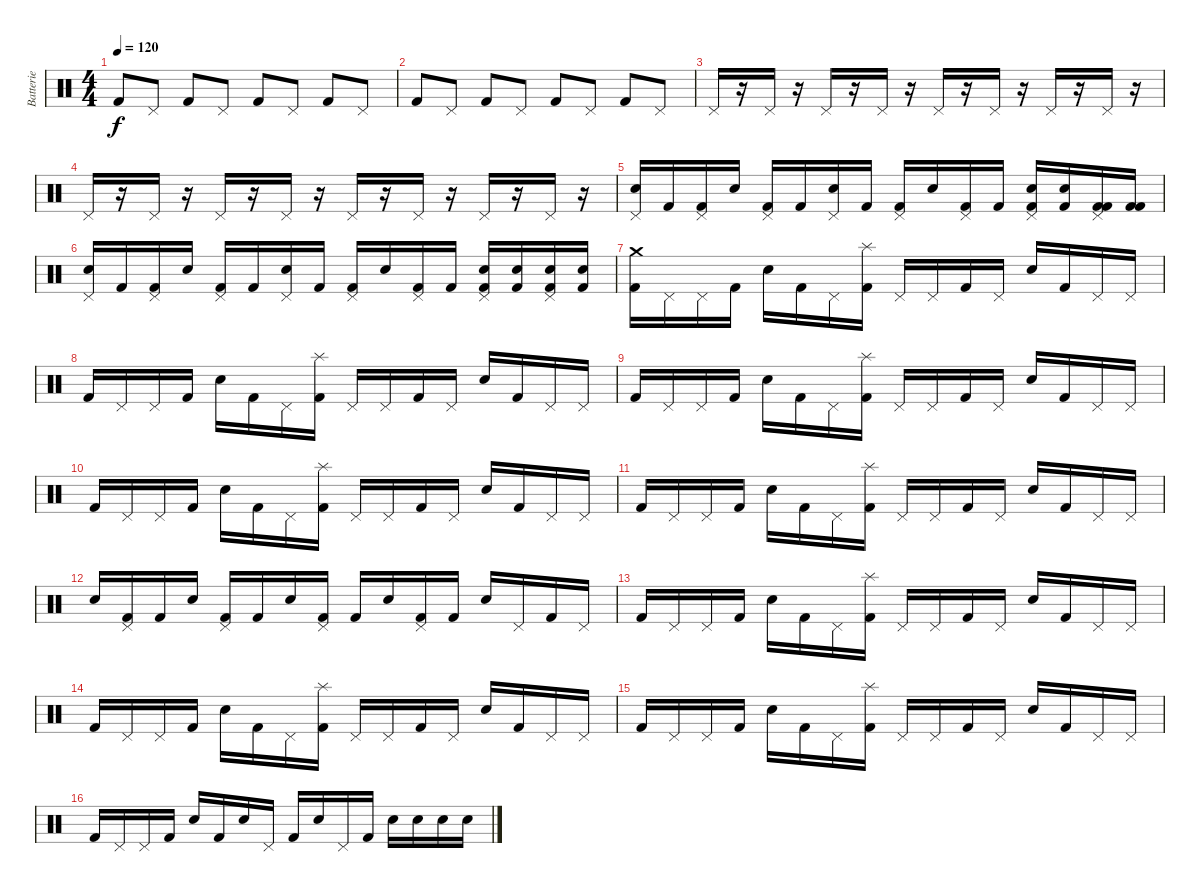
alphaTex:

\track ("Batterie" "Batterie") {instrument percussion}
\staff {score}
\articulation defaults
\ts (4 4)
\tempo 120
\clef neutral
\ks c "Kick (hit) 2".8{dy f} "Pedal Hi-Hat (hit)".8 "Kick (hit) 2".8 "Pedal Hi-Hat (hit)".8 "Kick (hit) 2".8 "Pedal Hi-Hat (hit)".8 "Kick (hit) 2".8 "Pedal Hi-Hat (hit)".8
|
"Kick (hit) 2".8 "Pedal Hi-Hat (hit)".8 "Kick (hit) 2".8 "Pedal Hi-Hat (hit)".8 "Kick (hit) 2".8 "Pedal Hi-Hat (hit)".8 "Kick (hit) 2".8 "Pedal Hi-Hat (hit)".8 |
"Pedal Hi-Hat (hit)".16 r.16 "Pedal Hi-Hat (hit)".16 r.16 "Pedal Hi-Hat (hit)".16 r.16 "Pedal Hi-Hat (hit)".16 r.16 "Pedal Hi-Hat (hit)".16 r.16 "Pedal Hi-Hat (hit)".16 r.16 "Pedal Hi-Hat (hit)".16 r.16 "Pedal Hi-Hat (hit)".16 r.16 |
"Pedal Hi-Hat (hit)".16 r.16 "Pedal Hi-Hat (hit)".16 r.16 "Pedal Hi-Hat (hit)".16 r.16 "Pedal Hi-Hat (hit)".16 r.16 "Pedal Hi-Hat (hit)".16 r.16 "Pedal Hi-Hat (hit)".16 r.16 "Pedal Hi-Hat (hit)".16 r.16 "Pedal Hi-Hat (hit)".16 r.16 |
("Pedal Hi-Hat (hit)" "Electric Snare (hit)").16 "Kick (hit) 2".16 ("Pedal Hi-Hat (hit)" "Kick (hit) 2").16 "Electric Snare (hit)".16 ("Pedal Hi-Hat (hit)" "Kick (hit) 2").16 "Kick (hit) 2".16 ("Pedal Hi-Hat (hit)" "Electric Snare (hit)").16 "Kick (hit) 2".16 ("Pedal Hi-Hat (hit)" "Kick (hit) 2").16 "Electric Snare (hit)".16 ("Pedal Hi-Hat (hit)" "Kick (hit) 2").16 "Kick (hit) 2".16 ("Pedal Hi-Hat (hit)" "Snare (hit) 2" "Kick (hit) 2").16 ("Snare (hit) 2" "Kick (hit) 2").16 ("Pedal Hi-Hat (hit)" "Kick (hit) 2" "Kick (hit) 2").16 ("Kick (hit) 2" "Kick (hit) 2").16 |
("Pedal Hi-Hat (hit)" "Electric Snare (hit)").16 "Kick (hit) 2".16 ("Pedal Hi-Hat (hit)" "Kick (hit) 2").16 "Electric Snare (hit)".16 ("Pedal Hi-Hat (hit)" "Kick (hit) 2").16 "Kick (hit) 2".16 ("Pedal Hi-Hat (hit)" "Electric Snare (hit)").16 "Kick (hit) 2".16 ("Pedal Hi-Hat (hit)" "Kick (hit) 2").16 "Electric Snare (hit)".16 ("Pedal Hi-Hat (hit)" "Kick (hit) 2").16 "Kick (hit) 2".16 ("Pedal Hi-Hat (hit)" "Electric Snare (hit)" "Kick (hit) 2").16 ("Electric Snare (hit)" "Kick (hit) 2").16 ("Pedal Hi-Hat (hit)" "Electric Snare (hit)" "Kick (hit) 2").16 ("Electric Snare (hit)" "Kick (hit) 2").16 |
("Crash medium (hit)" "Kick (hit) 2").16 "Pedal Hi-Hat (hit)".16 "Pedal Hi-Hat (hit)".16 "Kick (hit) 2".16 "Electric Snare (hit)".16 "Kick (hit) 2".16 "Pedal Hi-Hat (hit)".16 ("Splash (hit)" "Kick (hit) 2").16 "Pedal Hi-Hat (hit)".16 "Pedal Hi-Hat (hit)".16 "Kick (hit) 2".16 "Pedal Hi-Hat (hit)".16 "Electric Snare (hit)".16 "Kick (hit) 2".16 "Pedal Hi-Hat (hit)".16 "Pedal Hi-Hat (hit)".16 |
"Kick (hit) 2".16 "Pedal Hi-Hat (hit)".16 "Pedal Hi-Hat (hit)".16 "Kick (hit) 2".16 "Electric Snare (hit)".16 "Kick (hit) 2".16 "Pedal Hi-Hat (hit)".16 ("Splash (hit)" "Kick (hit) 2").16 "Pedal Hi-Hat (hit)".16 "Pedal Hi-Hat (hit)".16 "Kick (hit) 2".16 "Pedal Hi-Hat (hit)".16 "Electric Snare (hit)".16 "Kick (hit) 2".16 "Pedal Hi-Hat (hit)".16 "Pedal Hi-Hat (hit)".16 |
"Kick (hit) 2".16 "Pedal Hi-Hat (hit)".16 "Pedal Hi-Hat (hit)".16 "Kick (hit) 2".16 "Electric Snare (hit)".16 "Kick (hit) 2".16 "Pedal Hi-Hat (hit)".16 ("Splash (hit)" "Kick (hit) 2").16 "Pedal Hi-Hat (hit)".16 "Pedal Hi-Hat (hit)".16 "Kick (hit) 2".16 "Pedal Hi-Hat (hit)".16 "Electric Snare (hit)".16 "Kick (hit) 2".16 "Pedal Hi-Hat (hit)".16 "Pedal Hi-Hat (hit)".16 |
"Kick (hit) 2".16 "Pedal Hi-Hat (hit)".16 "Pedal Hi-Hat (hit)".16 "Kick (hit) 2".16 "Electric Snare (hit)".16 "Kick (hit) 2".16 "Pedal Hi-Hat (hit)".16 ("Splash (hit)" "Kick (hit) 2").16 "Pedal Hi-Hat (hit)".16 "Pedal Hi-Hat (hit)".16 "Kick (hit) 2".16 "Pedal Hi-Hat (hit)".16 "Electric Snare (hit)".16 "Kick (hit) 2".16 "Pedal Hi-Hat (hit)".16 "Pedal Hi-Hat (hit)".16 |
"Kick (hit) 2".16 "Pedal Hi-Hat (hit)".16 "Pedal Hi-Hat (hit)".16 "Kick (hit) 2".16 "Electric Snare (hit)".16 "Kick (hit) 2".16 "Pedal Hi-Hat (hit)".16 ("Splash (hit)" "Kick (hit) 2").16 "Pedal Hi-Hat (hit)".16 "Pedal Hi-Hat (hit)".16 "Kick (hit) 2".16 "Pedal Hi-Hat (hit)".16 "Electric Snare (hit)".16 "Kick (hit) 2".16 "Pedal Hi-Hat (hit)".16 "Pedal Hi-Hat (hit)".16 |
"Electric Snare (hit)".16 ("Pedal Hi-Hat (hit)" "Kick (hit) 2").16 "Kick (hit) 2".16 "Electric Snare (hit)".16 ("Pedal Hi-Hat (hit)" "Kick (hit) 2").16 "Kick (hit) 2".16 "Electric Snare (hit)".16 ("Pedal Hi-Hat (hit)" "Kick (hit) 2").16 "Kick (hit) 2".16 "Electric Snare (hit)".16 ("Pedal Hi-Hat (hit)" "Kick (hit) 2").16 "Kick (hit) 2".16 "Electric Snare (hit)".16 "Pedal Hi-Hat (hit)".16 "Kick (hit) 2".16 "Pedal Hi-Hat (hit)".16 |
"Kick (hit) 2".16 "Pedal Hi-Hat (hit)".16 "Pedal Hi-Hat (hit)".16 "Kick (hit) 2".16 "Electric Snare (hit)".16 "Kick (hit) 2".16 "Pedal Hi-Hat (hit)".16 ("Splash (hit)" "Kick (hit) 2").16 "Pedal Hi-Hat (hit)".16 "Pedal Hi-Hat (hit)".16 "Kick (hit) 2".16 "Pedal Hi-Hat (hit)".16 "Electric Snare (hit)".16 "Kick (hit) 2".16 "Pedal Hi-Hat (hit)".16 "Pedal Hi-Hat (hit)".16 |
"Kick (hit) 2".16 "Pedal Hi-Hat (hit)".16 "Pedal Hi-Hat (hit)".16 "Kick (hit) 2".16 "Electric Snare (hit)".16 "Kick (hit) 2".16 "Pedal Hi-Hat (hit)".16 ("Splash (hit)" "Kick (hit) 2").16 "Pedal Hi-Hat (hit)".16 "Pedal Hi-Hat (hit)".16 "Kick (hit) 2".16 "Pedal Hi-Hat (hit)".16 "Electric Snare (hit)".16 "Kick (hit) 2".16 "Pedal Hi-Hat (hit)".16 "Pedal Hi-Hat (hit)".16 |
"Kick (hit) 2".16 "Pedal Hi-Hat (hit)".16 "Pedal Hi-Hat (hit)".16 "Kick (hit) 2".16 "Electric Snare (hit)".16 "Kick (hit) 2".16 "Pedal Hi-Hat (hit)".16 ("Splash (hit)" "Kick (hit) 2").16 "Pedal Hi-Hat (hit)".16 "Pedal Hi-Hat (hit)".16 "Kick (hit) 2".16 "Pedal Hi-Hat (hit)".16 "Electric Snare (hit)".16 "Kick (hit) 2".16 "Pedal Hi-Hat (hit)".16 "Pedal Hi-Hat (hit)".16 |
"Kick (hit) 2".16 "Pedal Hi-Hat (hit)".16 "Pedal Hi-Hat (hit)".16 "Kick (hit) 2".16 "Electric Snare (hit)".16 "Kick (hit) 2".16 "Electric Snare (hit)".16 "Pedal Hi-Hat (hit)".16 "Kick (hit) 2".16 "Electric Snare (hit)".16 "Pedal Hi-Hat (hit)".16 "Kick (hit) 2".16 "Electric Snare (hit)".16 "Electric Snare (hit)".16 "Electric Snare (hit)".16 "Electric Snare (hit)".16
